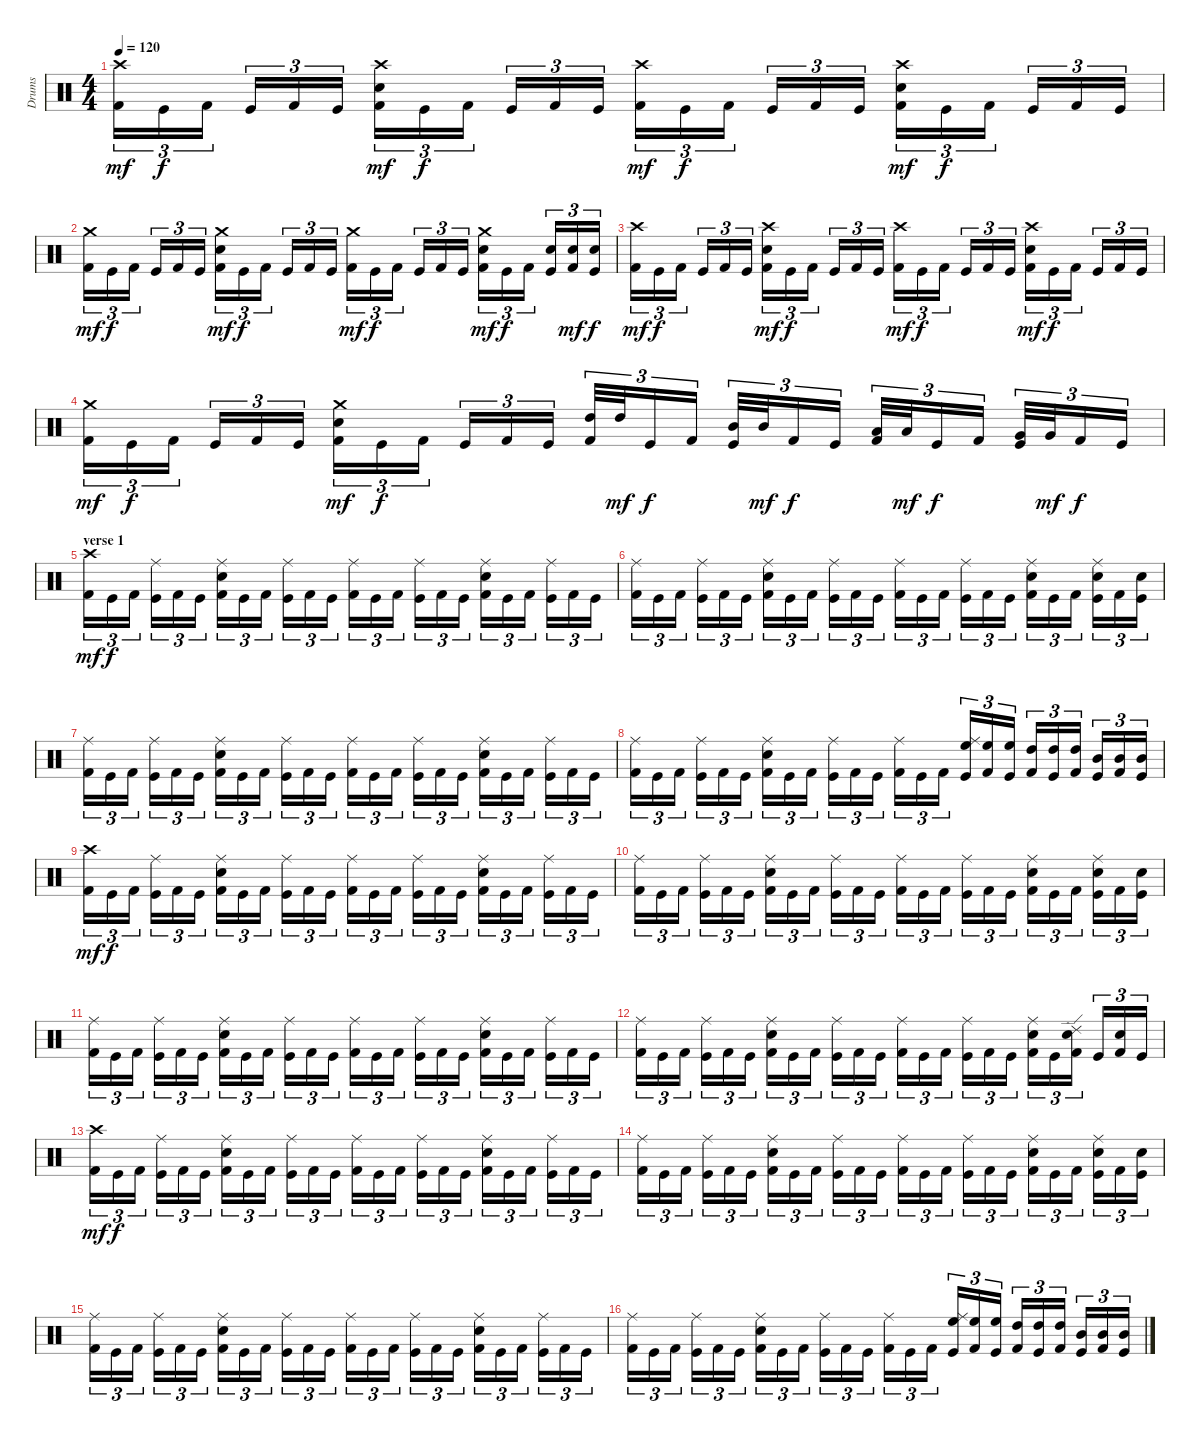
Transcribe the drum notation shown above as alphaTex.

\track ("Drums" "Drums") {instrument percussion}
\staff {score}
\articulation defaults
\ts (4 4)
\tempo 120
\clef neutral
\ks c
("Crash high (hit)" "Kick (hit) 2").16{tu (3 2) dy mf} "Kick (hit)".16{tu (3 2) dy f} "Kick (hit) 2".16{tu (3 2)} "Kick (hit)".16{tu (3 2)} "Kick (hit) 2".16{tu (3 2)} "Kick (hit)".16{tu (3 2)} ("Crash high (hit)" "Snare (hit) 2" "Kick (hit) 2").16{tu (3 2) dy mf} "Kick (hit)".16{tu (3 2) dy f} "Kick (hit) 2".16{tu (3 2)} "Kick (hit)".16{tu (3 2)} "Kick (hit) 2".16{tu (3 2)} "Kick (hit)".16{tu (3 2)} ("Crash high (hit)" "Kick (hit) 2").16{tu (3 2) dy mf} "Kick (hit)".16{tu (3 2) dy f} "Kick (hit) 2".16{tu (3 2)} "Kick (hit)".16{tu (3 2)} "Kick (hit) 2".16{tu (3 2)} "Kick (hit)".16{tu (3 2)} ("Crash high (hit)" "Snare (hit) 2" "Kick (hit) 2").16{tu (3 2) dy mf} "Kick (hit)".16{tu (3 2) dy f} "Kick (hit) 2".16{tu (3 2)} "Kick (hit)".16{tu (3 2)} "Kick (hit) 2".16{tu (3 2)} "Kick (hit)".16{tu (3 2)} |
("Crash medium (hit)" "Kick (hit) 2").16{tu (3 2) dy mf} "Kick (hit)".16{tu (3 2) dy f} "Kick (hit) 2".16{tu (3 2)} "Kick (hit)".16{tu (3 2)} "Kick (hit) 2".16{tu (3 2)} "Kick (hit)".16{tu (3 2)} ("Crash medium (hit)" "Snare (hit) 2" "Kick (hit) 2").16{tu (3 2) dy mf} "Kick (hit)".16{tu (3 2) dy f} "Kick (hit) 2".16{tu (3 2)} "Kick (hit)".16{tu (3 2)} "Kick (hit) 2".16{tu (3 2)} "Kick (hit)".16{tu (3 2)} ("Crash medium (hit)" "Kick (hit) 2").16{tu (3 2) dy mf} "Kick (hit)".16{tu (3 2) dy f} "Kick (hit) 2".16{tu (3 2)} "Kick (hit)".16{tu (3 2)} "Kick (hit) 2".16{tu (3 2)} "Kick (hit)".16{tu (3 2)} ("Crash medium (hit)" "Snare (hit) 2" "Kick (hit) 2").16{tu (3 2) dy mf} "Kick (hit)".16{tu (3 2) dy f} "Kick (hit) 2".16{tu (3 2)} ("Snare (hit) 2" "Kick (hit)").16{tu (3 2)} ("Snare (hit) 2" "Kick (hit) 2").16{tu (3 2) dy mf} ("Snare (hit) 2" "Kick (hit)").16{tu (3 2) dy f} |
("Crash high (hit)" "Kick (hit) 2").16{tu (3 2) dy mf} "Kick (hit)".16{tu (3 2) dy f} "Kick (hit) 2".16{tu (3 2)} "Kick (hit)".16{tu (3 2)} "Kick (hit) 2".16{tu (3 2)} "Kick (hit)".16{tu (3 2)} ("Crash high (hit)" "Snare (hit) 2" "Kick (hit) 2").16{tu (3 2) dy mf} "Kick (hit)".16{tu (3 2) dy f} "Kick (hit) 2".16{tu (3 2)} "Kick (hit)".16{tu (3 2)} "Kick (hit) 2".16{tu (3 2)} "Kick (hit)".16{tu (3 2)} ("Crash high (hit)" "Kick (hit) 2").16{tu (3 2) dy mf} "Kick (hit)".16{tu (3 2) dy f} "Kick (hit) 2".16{tu (3 2)} "Kick (hit)".16{tu (3 2)} "Kick (hit) 2".16{tu (3 2)} "Kick (hit)".16{tu (3 2)} ("Crash high (hit)" "Snare (hit) 2" "Kick (hit) 2").16{tu (3 2) dy mf} "Kick (hit)".16{tu (3 2) dy f} "Kick (hit) 2".16{tu (3 2)} "Kick (hit)".16{tu (3 2)} "Kick (hit) 2".16{tu (3 2)} "Kick (hit)".16{tu (3 2)} |
("Crash medium (hit)" "Kick (hit) 2").16{tu (3 2) dy mf} "Kick (hit)".16{tu (3 2) dy f} "Kick (hit) 2".16{tu (3 2)} "Kick (hit)".16{tu (3 2)} "Kick (hit) 2".16{tu (3 2)} "Kick (hit)".16{tu (3 2)} ("Crash medium (hit)" "Snare (hit) 2" "Kick (hit) 2").16{tu (3 2) dy mf} "Kick (hit)".16{tu (3 2) dy f} "Kick (hit) 2".16{tu (3 2)} "Kick (hit)".16{tu (3 2)} "Kick (hit) 2".16{tu (3 2)} "Kick (hit)".16{tu (3 2)} ("High Tom (hit)" "Kick (hit) 2").32{tu (3 2)} "High Tom (hit)".32{tu (3 2) dy mf} "Kick (hit)".16{tu (3 2) dy f} "Kick (hit) 2".16{tu (3 2)} ("Mid Tom (hit)" "Kick (hit)").32{tu (3 2)} "Mid Tom (hit)".32{tu (3 2) dy mf} "Kick (hit) 2".16{tu (3 2) dy f} "Kick (hit)".16{tu (3 2)} ("Low Tom (hit)" "Kick (hit) 2").32{tu (3 2)} "Low Tom (hit)".32{tu (3 2) dy mf} "Kick (hit)".16{tu (3 2) dy f} "Kick (hit) 2".16{tu (3 2)} ("Very Low Tom (hit)" "Kick (hit)").32{tu (3 2)} "Very Low Tom (hit)".32{tu (3 2) dy mf} "Kick (hit) 2".16{tu (3 2) dy f} "Kick (hit)".16{tu (3 2)} |
\section ("" "verse 1")
("Crash high (hit)" "Kick (hit) 2").16{tu (3 2) dy mf} "Kick (hit)".16{tu (3 2) dy f} "Kick (hit) 2".16{tu (3 2)} ("Ride (middle)" "Kick (hit)").16{tu (3 2)} "Kick (hit) 2".16{tu (3 2)} "Kick (hit)".16{tu (3 2)} ("Ride (middle)" "Snare (hit) 2" "Kick (hit) 2").16{tu (3 2)} "Kick (hit)".16{tu (3 2)} "Kick (hit) 2".16{tu (3 2)} ("Ride (middle)" "Kick (hit)").16{tu (3 2)} "Kick (hit) 2".16{tu (3 2)} "Kick (hit)".16{tu (3 2)} ("Ride (middle)" "Kick (hit) 2").16{tu (3 2)} "Kick (hit)".16{tu (3 2)} "Kick (hit) 2".16{tu (3 2)} ("Ride (middle)" "Kick (hit)").16{tu (3 2)} "Kick (hit) 2".16{tu (3 2)} "Kick (hit)".16{tu (3 2)} ("Ride (middle)" "Snare (hit) 2" "Kick (hit) 2").16{tu (3 2)} "Kick (hit)".16{tu (3 2)} "Kick (hit) 2".16{tu (3 2)} ("Ride (middle)" "Kick (hit)").16{tu (3 2)} "Kick (hit) 2".16{tu (3 2)} "Kick (hit)".16{tu (3 2)} |
("Ride (middle)" "Kick (hit) 2").16{tu (3 2)} "Kick (hit)".16{tu (3 2)} "Kick (hit) 2".16{tu (3 2)} ("Ride (middle)" "Kick (hit)").16{tu (3 2)} "Kick (hit) 2".16{tu (3 2)} "Kick (hit)".16{tu (3 2)} ("Ride (middle)" "Snare (hit) 2" "Kick (hit) 2").16{tu (3 2)} "Kick (hit)".16{tu (3 2)} "Kick (hit) 2".16{tu (3 2)} ("Ride (middle)" "Kick (hit)").16{tu (3 2)} "Kick (hit) 2".16{tu (3 2)} "Kick (hit)".16{tu (3 2)} ("Ride (middle)" "Kick (hit) 2").16{tu (3 2)} "Kick (hit)".16{tu (3 2)} "Kick (hit) 2".16{tu (3 2)} ("Ride (middle)" "Kick (hit)").16{tu (3 2)} "Kick (hit) 2".16{tu (3 2)} "Kick (hit)".16{tu (3 2)} ("Ride (middle)" "Snare (hit) 2" "Kick (hit) 2").16{tu (3 2)} "Kick (hit)".16{tu (3 2)} "Kick (hit) 2".16{tu (3 2)} ("Ride (middle)" "Snare (hit) 2" "Kick (hit)").16{tu (3 2)} "Kick (hit) 2".16{tu (3 2)} ("Snare (hit) 2" "Kick (hit)").16{tu (3 2)} |
("Ride (middle)" "Kick (hit) 2").16{tu (3 2)} "Kick (hit)".16{tu (3 2)} "Kick (hit) 2".16{tu (3 2)} ("Ride (middle)" "Kick (hit)").16{tu (3 2)} "Kick (hit) 2".16{tu (3 2)} "Kick (hit)".16{tu (3 2)} ("Ride (middle)" "Snare (hit) 2" "Kick (hit) 2").16{tu (3 2)} "Kick (hit)".16{tu (3 2)} "Kick (hit) 2".16{tu (3 2)} ("Ride (middle)" "Kick (hit)").16{tu (3 2)} "Kick (hit) 2".16{tu (3 2)} "Kick (hit)".16{tu (3 2)} ("Ride (middle)" "Kick (hit) 2").16{tu (3 2)} "Kick (hit)".16{tu (3 2)} "Kick (hit) 2".16{tu (3 2)} ("Ride (middle)" "Kick (hit)").16{tu (3 2)} "Kick (hit) 2".16{tu (3 2)} "Kick (hit)".16{tu (3 2)} ("Ride (middle)" "Snare (hit) 2" "Kick (hit) 2").16{tu (3 2)} "Kick (hit)".16{tu (3 2)} "Kick (hit) 2".16{tu (3 2)} ("Ride (middle)" "Kick (hit)").16{tu (3 2)} "Kick (hit) 2".16{tu (3 2)} "Kick (hit)".16{tu (3 2)} |
("Ride (middle)" "Kick (hit) 2").16{tu (3 2)} "Kick (hit)".16{tu (3 2)} "Kick (hit) 2".16{tu (3 2)} ("Ride (middle)" "Kick (hit)").16{tu (3 2)} "Kick (hit) 2".16{tu (3 2)} "Kick (hit)".16{tu (3 2)} ("Ride (middle)" "Snare (hit) 2" "Kick (hit) 2").16{tu (3 2)} "Kick (hit)".16{tu (3 2)} "Kick (hit) 2".16{tu (3 2)} ("Ride (middle)" "Kick (hit)").16{tu (3 2)} "Kick (hit) 2".16{tu (3 2)} "Kick (hit)".16{tu (3 2)} ("Ride (middle)" "Kick (hit) 2").16{tu (3 2)} "Kick (hit)".16{tu (3 2)} "Kick (hit) 2".16{tu (3 2)} ("Ride (middle)" "High Floor Tom (hit)" "Kick (hit)").16{tu (3 2)} ("High Floor Tom (hit)" "Kick (hit) 2").16{tu (3 2)} ("High Floor Tom (hit)" "Kick (hit)").16{tu (3 2)} ("High Tom (hit)" "Kick (hit) 2").16{tu (3 2)} ("High Tom (hit)" "Kick (hit)").16{tu (3 2)} ("High Tom (hit)" "Kick (hit) 2").16{tu (3 2)} ("Mid Tom (hit)" "Kick (hit)").16{tu (3 2)} ("Mid Tom (hit)" "Kick (hit) 2").16{tu (3 2)} ("Mid Tom (hit)" "Kick (hit)").16{tu (3 2)} |
("Crash high (hit)" "Kick (hit) 2").16{tu (3 2) dy mf} "Kick (hit)".16{tu (3 2) dy f} "Kick (hit) 2".16{tu (3 2)} ("Ride (middle)" "Kick (hit)").16{tu (3 2)} "Kick (hit) 2".16{tu (3 2)} "Kick (hit)".16{tu (3 2)} ("Ride (middle)" "Snare (hit) 2" "Kick (hit) 2").16{tu (3 2)} "Kick (hit)".16{tu (3 2)} "Kick (hit) 2".16{tu (3 2)} ("Ride (middle)" "Kick (hit)").16{tu (3 2)} "Kick (hit) 2".16{tu (3 2)} "Kick (hit)".16{tu (3 2)} ("Ride (middle)" "Kick (hit) 2").16{tu (3 2)} "Kick (hit)".16{tu (3 2)} "Kick (hit) 2".16{tu (3 2)} ("Ride (middle)" "Kick (hit)").16{tu (3 2)} "Kick (hit) 2".16{tu (3 2)} "Kick (hit)".16{tu (3 2)} ("Ride (middle)" "Snare (hit) 2" "Kick (hit) 2").16{tu (3 2)} "Kick (hit)".16{tu (3 2)} "Kick (hit) 2".16{tu (3 2)} ("Ride (middle)" "Kick (hit)").16{tu (3 2)} "Kick (hit) 2".16{tu (3 2)} "Kick (hit)".16{tu (3 2)} |
("Ride (middle)" "Kick (hit) 2").16{tu (3 2)} "Kick (hit)".16{tu (3 2)} "Kick (hit) 2".16{tu (3 2)} ("Ride (middle)" "Kick (hit)").16{tu (3 2)} "Kick (hit) 2".16{tu (3 2)} "Kick (hit)".16{tu (3 2)} ("Ride (middle)" "Snare (hit) 2" "Kick (hit) 2").16{tu (3 2)} "Kick (hit)".16{tu (3 2)} "Kick (hit) 2".16{tu (3 2)} ("Ride (middle)" "Kick (hit)").16{tu (3 2)} "Kick (hit) 2".16{tu (3 2)} "Kick (hit)".16{tu (3 2)} ("Ride (middle)" "Kick (hit) 2").16{tu (3 2)} "Kick (hit)".16{tu (3 2)} "Kick (hit) 2".16{tu (3 2)} ("Ride (middle)" "Kick (hit)").16{tu (3 2)} "Kick (hit) 2".16{tu (3 2)} "Kick (hit)".16{tu (3 2)} ("Ride (middle)" "Snare (hit) 2" "Kick (hit) 2").16{tu (3 2)} "Kick (hit)".16{tu (3 2)} "Kick (hit) 2".16{tu (3 2)} ("Ride (middle)" "Snare (hit) 2" "Kick (hit)").16{tu (3 2)} "Kick (hit) 2".16{tu (3 2)} ("Snare (hit) 2" "Kick (hit)").16{tu (3 2)} |
("Ride (middle)" "Kick (hit) 2").16{tu (3 2)} "Kick (hit)".16{tu (3 2)} "Kick (hit) 2".16{tu (3 2)} ("Ride (middle)" "Kick (hit)").16{tu (3 2)} "Kick (hit) 2".16{tu (3 2)} "Kick (hit)".16{tu (3 2)} ("Ride (middle)" "Snare (hit) 2" "Kick (hit) 2").16{tu (3 2)} "Kick (hit)".16{tu (3 2)} "Kick (hit) 2".16{tu (3 2)} ("Ride (middle)" "Kick (hit)").16{tu (3 2)} "Kick (hit) 2".16{tu (3 2)} "Kick (hit)".16{tu (3 2)} ("Ride (middle)" "Kick (hit) 2").16{tu (3 2)} "Kick (hit)".16{tu (3 2)} "Kick (hit) 2".16{tu (3 2)} ("Ride (middle)" "Kick (hit)").16{tu (3 2)} "Kick (hit) 2".16{tu (3 2)} "Kick (hit)".16{tu (3 2)} ("Ride (middle)" "Snare (hit) 2" "Kick (hit) 2").16{tu (3 2)} "Kick (hit)".16{tu (3 2)} "Kick (hit) 2".16{tu (3 2)} ("Ride (middle)" "Kick (hit)").16{tu (3 2)} "Kick (hit) 2".16{tu (3 2)} "Kick (hit)".16{tu (3 2)} |
("Ride (middle)" "Kick (hit) 2").16{tu (3 2)} "Kick (hit)".16{tu (3 2)} "Kick (hit) 2".16{tu (3 2)} ("Ride (middle)" "Kick (hit)").16{tu (3 2)} "Kick (hit) 2".16{tu (3 2)} "Kick (hit)".16{tu (3 2)} ("Ride (middle)" "Snare (hit) 2" "Kick (hit) 2").16{tu (3 2)} "Kick (hit)".16{tu (3 2)} "Kick (hit) 2".16{tu (3 2)} ("Ride (middle)" "Kick (hit)").16{tu (3 2)} "Kick (hit) 2".16{tu (3 2)} "Kick (hit)".16{tu (3 2)} ("Ride (middle)" "Kick (hit) 2").16{tu (3 2)} "Kick (hit)".16{tu (3 2)} "Kick (hit) 2".16{tu (3 2)} ("Ride (middle)" "Kick (hit)").16{tu (3 2)} "Kick (hit) 2".16{tu (3 2)} "Kick (hit)".16{tu (3 2)} ("Ride (middle)" "Snare (hit) 2" "Kick (hit) 2").16{tu (3 2)} "Kick (hit)".16{tu (3 2)} ("Ride (edge) 2" "Snare (hit) 2" "Kick (hit) 2").16{tu (3 2)} "Kick (hit)".16{tu (3 2)} ("Snare (hit) 2" "Kick (hit) 2").16{tu (3 2)} "Kick (hit)".16{tu (3 2)} |
("Crash high (hit)" "Kick (hit) 2").16{tu (3 2) dy mf} "Kick (hit)".16{tu (3 2) dy f} "Kick (hit) 2".16{tu (3 2)} ("Ride (middle)" "Kick (hit)").16{tu (3 2)} "Kick (hit) 2".16{tu (3 2)} "Kick (hit)".16{tu (3 2)} ("Ride (middle)" "Snare (hit) 2" "Kick (hit) 2").16{tu (3 2)} "Kick (hit)".16{tu (3 2)} "Kick (hit) 2".16{tu (3 2)} ("Ride (middle)" "Kick (hit)").16{tu (3 2)} "Kick (hit) 2".16{tu (3 2)} "Kick (hit)".16{tu (3 2)} ("Ride (middle)" "Kick (hit) 2").16{tu (3 2)} "Kick (hit)".16{tu (3 2)} "Kick (hit) 2".16{tu (3 2)} ("Ride (middle)" "Kick (hit)").16{tu (3 2)} "Kick (hit) 2".16{tu (3 2)} "Kick (hit)".16{tu (3 2)} ("Ride (middle)" "Snare (hit) 2" "Kick (hit) 2").16{tu (3 2)} "Kick (hit)".16{tu (3 2)} "Kick (hit) 2".16{tu (3 2)} ("Ride (middle)" "Kick (hit)").16{tu (3 2)} "Kick (hit) 2".16{tu (3 2)} "Kick (hit)".16{tu (3 2)} |
("Ride (middle)" "Kick (hit) 2").16{tu (3 2)} "Kick (hit)".16{tu (3 2)} "Kick (hit) 2".16{tu (3 2)} ("Ride (middle)" "Kick (hit)").16{tu (3 2)} "Kick (hit) 2".16{tu (3 2)} "Kick (hit)".16{tu (3 2)} ("Ride (middle)" "Snare (hit) 2" "Kick (hit) 2").16{tu (3 2)} "Kick (hit)".16{tu (3 2)} "Kick (hit) 2".16{tu (3 2)} ("Ride (middle)" "Kick (hit)").16{tu (3 2)} "Kick (hit) 2".16{tu (3 2)} "Kick (hit)".16{tu (3 2)} ("Ride (middle)" "Kick (hit) 2").16{tu (3 2)} "Kick (hit)".16{tu (3 2)} "Kick (hit) 2".16{tu (3 2)} ("Ride (middle)" "Kick (hit)").16{tu (3 2)} "Kick (hit) 2".16{tu (3 2)} "Kick (hit)".16{tu (3 2)} ("Ride (middle)" "Snare (hit) 2" "Kick (hit) 2").16{tu (3 2)} "Kick (hit)".16{tu (3 2)} "Kick (hit) 2".16{tu (3 2)} ("Ride (middle)" "Snare (hit) 2" "Kick (hit)").16{tu (3 2)} "Kick (hit) 2".16{tu (3 2)} ("Snare (hit) 2" "Kick (hit)").16{tu (3 2)} |
("Ride (middle)" "Kick (hit) 2").16{tu (3 2)} "Kick (hit)".16{tu (3 2)} "Kick (hit) 2".16{tu (3 2)} ("Ride (middle)" "Kick (hit)").16{tu (3 2)} "Kick (hit) 2".16{tu (3 2)} "Kick (hit)".16{tu (3 2)} ("Ride (middle)" "Snare (hit) 2" "Kick (hit) 2").16{tu (3 2)} "Kick (hit)".16{tu (3 2)} "Kick (hit) 2".16{tu (3 2)} ("Ride (middle)" "Kick (hit)").16{tu (3 2)} "Kick (hit) 2".16{tu (3 2)} "Kick (hit)".16{tu (3 2)} ("Ride (middle)" "Kick (hit) 2").16{tu (3 2)} "Kick (hit)".16{tu (3 2)} "Kick (hit) 2".16{tu (3 2)} ("Ride (middle)" "Kick (hit)").16{tu (3 2)} "Kick (hit) 2".16{tu (3 2)} "Kick (hit)".16{tu (3 2)} ("Ride (middle)" "Snare (hit) 2" "Kick (hit) 2").16{tu (3 2)} "Kick (hit)".16{tu (3 2)} "Kick (hit) 2".16{tu (3 2)} ("Ride (middle)" "Kick (hit)").16{tu (3 2)} "Kick (hit) 2".16{tu (3 2)} "Kick (hit)".16{tu (3 2)} |
("Ride (middle)" "Kick (hit) 2").16{tu (3 2)} "Kick (hit)".16{tu (3 2)} "Kick (hit) 2".16{tu (3 2)} ("Ride (middle)" "Kick (hit)").16{tu (3 2)} "Kick (hit) 2".16{tu (3 2)} "Kick (hit)".16{tu (3 2)} ("Ride (middle)" "Snare (hit) 2" "Kick (hit) 2").16{tu (3 2)} "Kick (hit)".16{tu (3 2)} "Kick (hit) 2".16{tu (3 2)} ("Ride (middle)" "Kick (hit)").16{tu (3 2)} "Kick (hit) 2".16{tu (3 2)} "Kick (hit)".16{tu (3 2)} ("Ride (middle)" "Kick (hit) 2").16{tu (3 2)} "Kick (hit)".16{tu (3 2)} "Kick (hit) 2".16{tu (3 2)} ("Ride (middle)" "High Floor Tom (hit)" "Kick (hit)").16{tu (3 2)} ("High Floor Tom (hit)" "Kick (hit) 2").16{tu (3 2)} ("High Floor Tom (hit)" "Kick (hit)").16{tu (3 2)} ("High Tom (hit)" "Kick (hit) 2").16{tu (3 2)} ("High Tom (hit)" "Kick (hit)").16{tu (3 2)} ("High Tom (hit)" "Kick (hit) 2").16{tu (3 2)} ("Mid Tom (hit)" "Kick (hit)").16{tu (3 2)} ("Mid Tom (hit)" "Kick (hit) 2").16{tu (3 2)} ("Mid Tom (hit)" "Kick (hit)").16{tu (3 2)}
